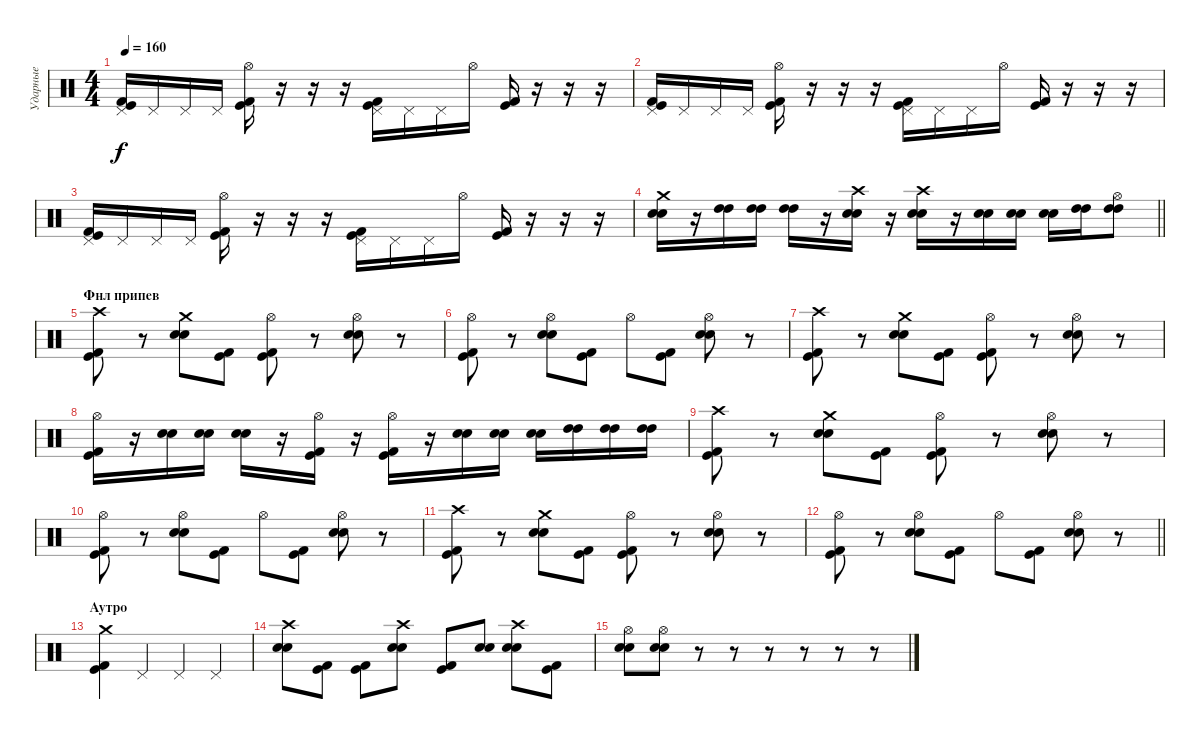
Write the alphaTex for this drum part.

\track ("Ударные" "Ударные") {instrument percussion}
\staff {score}
\articulation defaults
\ts (4 4)
\tempo 160
\clef neutral
\ks c
("Pedal Hi-Hat (hit)" "Kick (hit)" "Kick (hit) 2").16{dy f} "Pedal Hi-Hat (hit)".16 "Pedal Hi-Hat (hit)".16 "Pedal Hi-Hat (hit)".16 ("Hi-Hat (open)" "Kick (hit)" "Kick (hit) 2").16 r.16 r.16 r.16 ("Pedal Hi-Hat (hit)" "Kick (hit)" "Kick (hit) 2").16 "Pedal Hi-Hat (hit)".16 "Pedal Hi-Hat (hit)".16 "Hi-Hat (open)".16 ("Kick (hit)" "Kick (hit) 2").16 r.16 r.16 r.16 |
("Pedal Hi-Hat (hit)" "Kick (hit)" "Kick (hit) 2").16 "Pedal Hi-Hat (hit)".16 "Pedal Hi-Hat (hit)".16 "Pedal Hi-Hat (hit)".16 ("Hi-Hat (open)" "Kick (hit)" "Kick (hit) 2").16 r.16 r.16 r.16 ("Pedal Hi-Hat (hit)" "Kick (hit)" "Kick (hit) 2").16 "Pedal Hi-Hat (hit)".16 "Pedal Hi-Hat (hit)".16 "Hi-Hat (open)".16 ("Kick (hit)" "Kick (hit) 2").16 r.16 r.16 r.16 |
("Pedal Hi-Hat (hit)" "Kick (hit)" "Kick (hit) 2").16 "Pedal Hi-Hat (hit)".16 "Pedal Hi-Hat (hit)".16 "Pedal Hi-Hat (hit)".16 ("Hi-Hat (open)" "Kick (hit)" "Kick (hit) 2").16 r.16 r.16 r.16 ("Pedal Hi-Hat (hit)" "Kick (hit)" "Kick (hit) 2").16 "Pedal Hi-Hat (hit)".16 "Pedal Hi-Hat (hit)".16 "Hi-Hat (open)".16 ("Kick (hit)" "Kick (hit) 2").16 r.16 r.16 r.16 |
\barLineRight lightlight
("Crash medium (hit)" "Snare (hit) 2" "Electric Snare (hit)").16 r.16 ("High Tom (hit)" "High Tom (hit)").16 ("High Tom (hit)" "High Tom (hit)").16 ("High Tom (hit)" "High Tom (hit)").16 r.16 ("Crash high (hit)" "Snare (hit) 2" "Electric Snare (hit)").16 r.16 ("Crash high (hit)" "Snare (hit) 2" "Electric Snare (hit)").16 r.16 ("Snare (hit) 2" "Electric Snare (hit)").16 ("Snare (hit) 2" "Electric Snare (hit)").16 ("Snare (hit) 2" "Electric Snare (hit)").16 ("High Tom (hit)" "High Tom (hit)").16 ("Hi-Hat (open)" "High Tom (hit)" "High Tom (hit)").8 |
\section ("" "Фнл припев")
("Crash high (hit)" "Kick (hit) 2" "Kick (hit)").8 r.8 ("Crash medium (hit)" "Electric Snare (hit)" "Snare (hit) 2").8 ("Kick (hit) 2" "Kick (hit)").8 ("Hi-Hat (open)" "Kick (hit) 2" "Kick (hit)").8 r.8 ("Hi-Hat (open)" "Electric Snare (hit)" "Snare (hit) 2").8 r.8 |
("Hi-Hat (open)" "Kick (hit) 2" "Kick (hit)").8 r.8 ("Hi-Hat (open)" "Electric Snare (hit)" "Snare (hit) 2").8 ("Kick (hit) 2" "Kick (hit)").8 "Hi-Hat (open)".8 ("Kick (hit) 2" "Kick (hit)").8 ("Hi-Hat (open)" "Electric Snare (hit)" "Snare (hit) 2").8 r.8 |
("Crash high (hit)" "Kick (hit) 2" "Kick (hit)").8 r.8 ("Crash medium (hit)" "Electric Snare (hit)" "Snare (hit) 2").8 ("Kick (hit) 2" "Kick (hit)").8 ("Hi-Hat (open)" "Kick (hit) 2" "Kick (hit)").8 r.8 ("Hi-Hat (open)" "Electric Snare (hit)" "Snare (hit) 2").8 r.8 |
("Hi-Hat (open)" "Kick (hit) 2" "Kick (hit)").16 r.16 ("Snare (hit) 2" "Electric Snare (hit)").16 ("Snare (hit) 2" "Electric Snare (hit)").16 ("Snare (hit) 2" "Electric Snare (hit)").16 r.16 ("Hi-Hat (open)" "Kick (hit)" "Kick (hit) 2").16 r.16 ("Hi-Hat (open)" "Kick (hit)" "Kick (hit) 2").16 r.16 ("Snare (hit) 2" "Electric Snare (hit)").16 ("Snare (hit) 2" "Electric Snare (hit)").16 ("Snare (hit) 2" "Electric Snare (hit)").16 ("High Tom (hit)" "High Tom (hit)").16 ("High Tom (hit)" "High Tom (hit)").16 ("High Tom (hit)" "High Tom (hit)").16 |
("Crash high (hit)" "Kick (hit) 2" "Kick (hit)").8 r.8 ("Crash medium (hit)" "Electric Snare (hit)" "Snare (hit) 2").8 ("Kick (hit) 2" "Kick (hit)").8 ("Hi-Hat (open)" "Kick (hit) 2" "Kick (hit)").8 r.8 ("Hi-Hat (open)" "Electric Snare (hit)" "Snare (hit) 2").8 r.8 |
("Hi-Hat (open)" "Kick (hit) 2" "Kick (hit)").8 r.8 ("Hi-Hat (open)" "Electric Snare (hit)" "Snare (hit) 2").8 ("Kick (hit) 2" "Kick (hit)").8 "Hi-Hat (open)".8 ("Kick (hit) 2" "Kick (hit)").8 ("Hi-Hat (open)" "Electric Snare (hit)" "Snare (hit) 2").8 r.8 |
("Crash high (hit)" "Kick (hit) 2" "Kick (hit)").8 r.8 ("Crash medium (hit)" "Electric Snare (hit)" "Snare (hit) 2").8 ("Kick (hit) 2" "Kick (hit)").8 ("Hi-Hat (open)" "Kick (hit) 2" "Kick (hit)").8 r.8 ("Hi-Hat (open)" "Electric Snare (hit)" "Snare (hit) 2").8 r.8 |
\barLineRight lightlight
("Hi-Hat (open)" "Kick (hit) 2" "Kick (hit)").8 r.8 ("Hi-Hat (open)" "Electric Snare (hit)" "Snare (hit) 2").8 ("Kick (hit) 2" "Kick (hit)").8 "Hi-Hat (open)".8 ("Kick (hit) 2" "Kick (hit)").8 ("Hi-Hat (open)" "Electric Snare (hit)" "Snare (hit) 2").8 r.8 |
\section ("" "Аутро")
("Crash medium (hit)" "Kick (hit) 2" "Kick (hit)").4 "Pedal Hi-Hat (hit)".4 "Pedal Hi-Hat (hit)".4 "Pedal Hi-Hat (hit)".4 |
("Crash high (hit)" "Electric Snare (hit)" "Snare (hit) 2").8 ("Kick (hit) 2" "Kick (hit)").8 ("Kick (hit) 2" "Kick (hit)").8 ("Crash high (hit)" "Electric Snare (hit)" "Snare (hit) 2").8 ("Kick (hit) 2" "Kick (hit)").8 ("Electric Snare (hit)" "Snare (hit) 2").8 ("Crash high (hit)" "Electric Snare (hit)" "Snare (hit) 2").8 ("Kick (hit) 2" "Kick (hit)").8 |
("Hi-Hat (open)" "Snare (hit) 2" "Electric Snare (hit)").8 ("Hi-Hat (open)" "Snare (hit) 2" "Electric Snare (hit)").8 r.8 r.8 r.8 r.8 r.8 r.8
